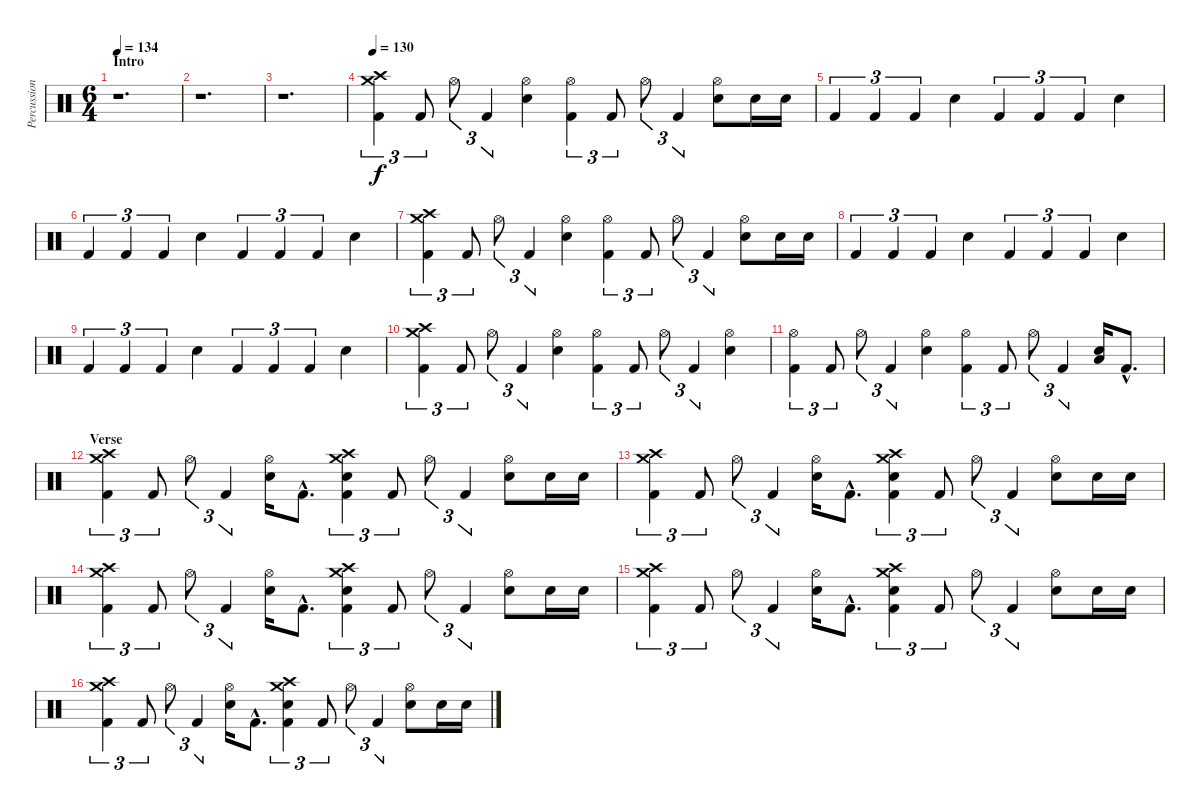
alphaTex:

\track ("Percussion" "Percussion") {instrument percussion}
\staff {score}
\articulation defaults
\ts (6 4)
\section ("" "Intro")
\tempo 134
\tempo 140
\tempo 134
\clef neutral
\ks c
r.1{d dy f} |
r.1{d} |
r.1{d} |
\tempo 130
("Crash medium (hit)" "Crash high (hit)" "Kick (hit) 2").4{tu (3 2)} "Kick (hit) 2".8{tu (3 2)} "Hi-Hat (open)".8{tu (3 2)} "Kick (hit) 2".4{tu (3 2)} ("Hi-Hat (open)" "Electric Snare (hit)").4 ("Hi-Hat (open)" "Kick (hit) 2").4{tu (3 2)} "Kick (hit) 2".8{tu (3 2)} "Hi-Hat (open)".8{tu (3 2)} "Kick (hit) 2".4{tu (3 2)} ("Hi-Hat (open)" "Electric Snare (hit)").8 "Electric Snare (hit)".16 "Electric Snare (hit)".16 |
"Kick (hit) 2".4{tu (3 2)} "Kick (hit) 2".4{tu (3 2)} "Kick (hit) 2".4{tu (3 2)} "Electric Snare (hit)".4 "Kick (hit) 2".4{tu (3 2)} "Kick (hit) 2".4{tu (3 2)} "Kick (hit) 2".4{tu (3 2)} "Electric Snare (hit)".4 |
"Kick (hit) 2".4{tu (3 2)} "Kick (hit) 2".4{tu (3 2)} "Kick (hit) 2".4{tu (3 2)} "Electric Snare (hit)".4 "Kick (hit) 2".4{tu (3 2)} "Kick (hit) 2".4{tu (3 2)} "Kick (hit) 2".4{tu (3 2)} "Electric Snare (hit)".4 |
("Crash medium (hit)" "Crash high (hit)" "Kick (hit) 2").4{tu (3 2)} "Kick (hit) 2".8{tu (3 2)} "Hi-Hat (open)".8{tu (3 2)} "Kick (hit) 2".4{tu (3 2)} ("Hi-Hat (open)" "Electric Snare (hit)").4 ("Hi-Hat (open)" "Kick (hit) 2").4{tu (3 2)} "Kick (hit) 2".8{tu (3 2)} "Hi-Hat (open)".8{tu (3 2)} "Kick (hit) 2".4{tu (3 2)} ("Hi-Hat (open)" "Electric Snare (hit)").8 "Electric Snare (hit)".16 "Electric Snare (hit)".16 |
"Kick (hit) 2".4{tu (3 2)} "Kick (hit) 2".4{tu (3 2)} "Kick (hit) 2".4{tu (3 2)} "Electric Snare (hit)".4 "Kick (hit) 2".4{tu (3 2)} "Kick (hit) 2".4{tu (3 2)} "Kick (hit) 2".4{tu (3 2)} "Electric Snare (hit)".4 |
"Kick (hit) 2".4{tu (3 2)} "Kick (hit) 2".4{tu (3 2)} "Kick (hit) 2".4{tu (3 2)} "Electric Snare (hit)".4 "Kick (hit) 2".4{tu (3 2)} "Kick (hit) 2".4{tu (3 2)} "Kick (hit) 2".4{tu (3 2)} "Electric Snare (hit)".4 |
("Crash medium (hit)" "Crash high (hit)" "Kick (hit) 2").4{tu (3 2)} "Kick (hit) 2".8{tu (3 2)} "Hi-Hat (open)".8{tu (3 2)} "Kick (hit) 2".4{tu (3 2)} ("Hi-Hat (open)" "Electric Snare (hit)").4 ("Hi-Hat (open)" "Kick (hit) 2").4{tu (3 2)} "Kick (hit) 2".8{tu (3 2)} "Hi-Hat (open)".8{tu (3 2)} "Kick (hit) 2".4{tu (3 2)} ("Hi-Hat (open)" "Electric Snare (hit)").4 |
("Hi-Hat (open)" "Kick (hit) 2").4{tu (3 2)} "Kick (hit) 2".8{tu (3 2)} "Hi-Hat (open)".8{tu (3 2)} "Kick (hit) 2".4{tu (3 2)} ("Hi-Hat (open)" "Electric Snare (hit)").4 ("Hi-Hat (open)" "Kick (hit) 2").4{tu (3 2)} "Kick (hit) 2".8{tu (3 2)} "Hi-Hat (open)".8{tu (3 2)} "Kick (hit) 2".4{tu (3 2)} ("Electric Snare (hit)" "Low Floor Tom (hit)").16 "Kick (hit) 2"{hac}.8{d} |
\section ("" "Verse")
("Crash medium (hit)" "Crash high (hit)" "Kick (hit) 2").4{tu (3 2)} "Kick (hit) 2".8{tu (3 2)} "Hi-Hat (open)".8{tu (3 2)} "Kick (hit) 2".4{tu (3 2)} ("Hi-Hat (open)" "Electric Snare (hit)").16 "Kick (hit) 2"{hac}.8{d} ("Crash medium (hit)" "Crash high (hit)" "Electric Snare (hit)" "Kick (hit) 2").4{tu (3 2)} "Kick (hit) 2".8{tu (3 2)} "Hi-Hat (open)".8{tu (3 2)} "Kick (hit) 2".4{tu (3 2)} ("Hi-Hat (open)" "Electric Snare (hit)").8 "Electric Snare (hit)".16 "Electric Snare (hit)".16 |
("Crash medium (hit)" "Crash high (hit)" "Kick (hit) 2").4{tu (3 2)} "Kick (hit) 2".8{tu (3 2)} "Hi-Hat (open)".8{tu (3 2)} "Kick (hit) 2".4{tu (3 2)} ("Hi-Hat (open)" "Electric Snare (hit)").16 "Kick (hit) 2"{hac}.8{d} ("Crash medium (hit)" "Crash high (hit)" "Electric Snare (hit)" "Kick (hit) 2").4{tu (3 2)} "Kick (hit) 2".8{tu (3 2)} "Hi-Hat (open)".8{tu (3 2)} "Kick (hit) 2".4{tu (3 2)} ("Hi-Hat (open)" "Electric Snare (hit)").8 "Electric Snare (hit)".16 "Electric Snare (hit)".16 |
("Crash medium (hit)" "Crash high (hit)" "Kick (hit) 2").4{tu (3 2)} "Kick (hit) 2".8{tu (3 2)} "Hi-Hat (open)".8{tu (3 2)} "Kick (hit) 2".4{tu (3 2)} ("Hi-Hat (open)" "Electric Snare (hit)").16 "Kick (hit) 2"{hac}.8{d} ("Crash medium (hit)" "Crash high (hit)" "Electric Snare (hit)" "Kick (hit) 2").4{tu (3 2)} "Kick (hit) 2".8{tu (3 2)} "Hi-Hat (open)".8{tu (3 2)} "Kick (hit) 2".4{tu (3 2)} ("Hi-Hat (open)" "Electric Snare (hit)").8 "Electric Snare (hit)".16 "Electric Snare (hit)".16 |
("Crash medium (hit)" "Crash high (hit)" "Kick (hit) 2").4{tu (3 2)} "Kick (hit) 2".8{tu (3 2)} "Hi-Hat (open)".8{tu (3 2)} "Kick (hit) 2".4{tu (3 2)} ("Hi-Hat (open)" "Electric Snare (hit)").16 "Kick (hit) 2"{hac}.8{d} ("Crash medium (hit)" "Crash high (hit)" "Electric Snare (hit)" "Kick (hit) 2").4{tu (3 2)} "Kick (hit) 2".8{tu (3 2)} "Hi-Hat (open)".8{tu (3 2)} "Kick (hit) 2".4{tu (3 2)} ("Hi-Hat (open)" "Electric Snare (hit)").8 "Electric Snare (hit)".16 "Electric Snare (hit)".16 |
("Crash medium (hit)" "Crash high (hit)" "Kick (hit) 2").4{tu (3 2)} "Kick (hit) 2".8{tu (3 2)} "Hi-Hat (open)".8{tu (3 2)} "Kick (hit) 2".4{tu (3 2)} ("Hi-Hat (open)" "Electric Snare (hit)").16 "Kick (hit) 2"{hac}.8{d} ("Crash medium (hit)" "Crash high (hit)" "Electric Snare (hit)" "Kick (hit) 2").4{tu (3 2)} "Kick (hit) 2".8{tu (3 2)} "Hi-Hat (open)".8{tu (3 2)} "Kick (hit) 2".4{tu (3 2)} ("Hi-Hat (open)" "Electric Snare (hit)").8 "Electric Snare (hit)".16 "Electric Snare (hit)".16
